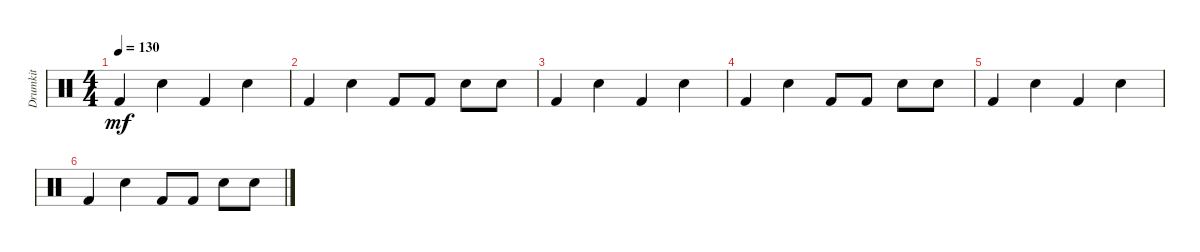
\track ("Drumkit" "Drumkit") {instrument percussion}
\staff {score}
\articulation defaults
\ts (4 4)
\tempo 130
\clef neutral
\ks c "Kick (hit) 2".4{dy mf} "Snare (hit) 2".4 "Kick (hit) 2".4 "Snare (hit) 2".4
|
"Kick (hit) 2".4 "Snare (hit) 2".4 "Kick (hit) 2".8 "Kick (hit) 2".8 "Snare (hit) 2".8 "Snare (hit) 2".8 |
"Kick (hit) 2".4 "Snare (hit) 2".4 "Kick (hit) 2".4 "Snare (hit) 2".4 |
"Kick (hit) 2".4 "Snare (hit) 2".4 "Kick (hit) 2".8 "Kick (hit) 2".8 "Snare (hit) 2".8 "Snare (hit) 2".8 |
"Kick (hit) 2".4 "Snare (hit) 2".4 "Kick (hit) 2".4 "Snare (hit) 2".4 |
"Kick (hit) 2".4 "Snare (hit) 2".4 "Kick (hit) 2".8 "Kick (hit) 2".8 "Snare (hit) 2".8 "Snare (hit) 2".8
